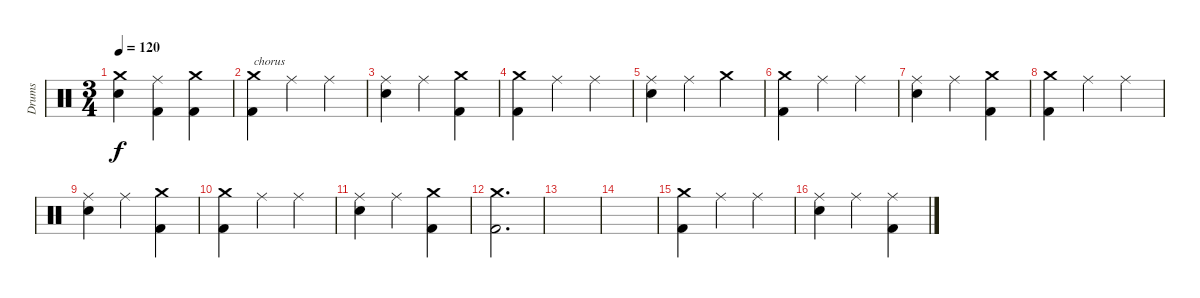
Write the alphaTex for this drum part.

\track ("Drums" "Drums") {instrument percussion}
\staff {score}
\articulation defaults
\ts (3 4)
\tempo 120
\clef neutral
\ks c
("Crash medium (hit)" "Electric Snare (hit)").4{dy f} ("Ride (middle)" "Kick (hit) 2").4 ("Crash medium (hit)" "Kick (hit) 2").4 |
("Crash medium (hit)" "Kick (hit) 2").4{txt "chorus"} "Ride (middle)".4 "Ride (middle)".4 |
("Ride (middle)" "Electric Snare (hit)").4 "Ride (middle)".4 ("Crash medium (hit)" "Kick (hit) 2").4 |
("Crash medium (hit)" "Kick (hit) 2").4 "Ride (middle)".4 "Ride (middle)".4 |
("Ride (middle)" "Electric Snare (hit)").4 "Ride (middle)".4 "Crash medium (hit)".4 |
("Crash medium (hit)" "Kick (hit) 2").4 "Ride (middle)".4 "Ride (middle)".4 |
("Ride (middle)" "Electric Snare (hit)").4 "Ride (middle)".4 ("Crash medium (hit)" "Kick (hit) 2").4 |
("Crash medium (hit)" "Kick (hit) 2").4 "Ride (middle)".4 "Ride (middle)".4 |
("Ride (middle)" "Electric Snare (hit)").4 "Ride (middle)".4 ("Crash medium (hit)" "Kick (hit) 2").4 |
("Crash medium (hit)" "Kick (hit) 2").4 "Ride (middle)".4 "Ride (middle)".4 |
("Ride (middle)" "Electric Snare (hit)").4 "Ride (middle)".4 ("Crash medium (hit)" "Kick (hit) 2").4 |
("Crash medium (hit)" "Kick (hit) 2").2{d} |
|
|
("Crash medium (hit)" "Kick (hit) 2").4 "Ride (middle)".4 "Ride (middle)".4 |
("Ride (middle)" "Electric Snare (hit)").4 "Ride (middle)".4 ("Ride (middle)" "Kick (hit) 2").4
